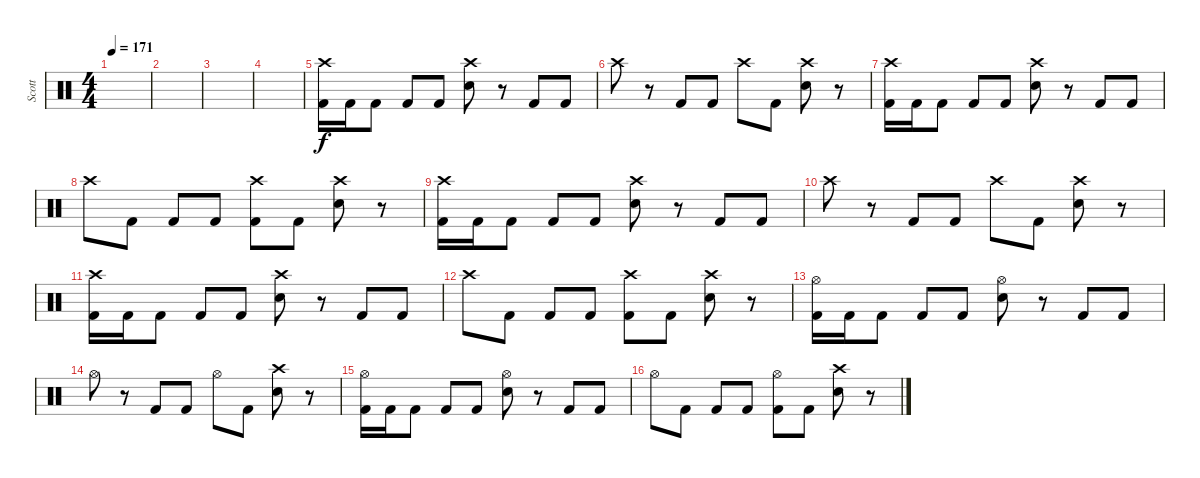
\track ("Scott" "Scott") {instrument percussion}
\staff {score}
\articulation defaults
\ts (4 4)
\tempo 171
\clef neutral
\ks c
|
|
|
|
("Crash high (hit)" "Kick (hit) 2").16 "Kick (hit) 2".16 "Kick (hit) 2".8 "Kick (hit) 2".8 "Kick (hit) 2".8 ("Crash high (hit)" "Electric Snare (hit)").8 r.8 "Kick (hit) 2".8 "Kick (hit) 2".8 |
"Crash high (hit)".8 r.8 "Kick (hit) 2".8 "Kick (hit) 2".8 "Crash high (hit)".8 "Kick (hit) 2".8 ("Crash high (hit)" "Electric Snare (hit)").8 r.8 |
("Crash high (hit)" "Kick (hit) 2").16 "Kick (hit) 2".16 "Kick (hit) 2".8 "Kick (hit) 2".8 "Kick (hit) 2".8 ("Crash high (hit)" "Electric Snare (hit)").8 r.8 "Kick (hit) 2".8 "Kick (hit) 2".8 |
"Crash high (hit)".8 "Kick (hit) 2".8 "Kick (hit) 2".8 "Kick (hit) 2".8 ("Crash high (hit)" "Kick (hit) 2").8 "Kick (hit) 2".8 ("Crash high (hit)" "Electric Snare (hit)").8 r.8 |
("Crash high (hit)" "Kick (hit) 2").16 "Kick (hit) 2".16 "Kick (hit) 2".8 "Kick (hit) 2".8 "Kick (hit) 2".8 ("Crash high (hit)" "Electric Snare (hit)").8 r.8 "Kick (hit) 2".8 "Kick (hit) 2".8 |
"Crash high (hit)".8 r.8 "Kick (hit) 2".8 "Kick (hit) 2".8 "Crash high (hit)".8 "Kick (hit) 2".8 ("Crash high (hit)" "Electric Snare (hit)").8 r.8 |
("Crash high (hit)" "Kick (hit) 2").16 "Kick (hit) 2".16 "Kick (hit) 2".8 "Kick (hit) 2".8 "Kick (hit) 2".8 ("Crash high (hit)" "Electric Snare (hit)").8 r.8 "Kick (hit) 2".8 "Kick (hit) 2".8 |
"Crash high (hit)".8 "Kick (hit) 2".8 "Kick (hit) 2".8 "Kick (hit) 2".8 ("Crash high (hit)" "Kick (hit) 2").8 "Kick (hit) 2".8 ("Crash high (hit)" "Electric Snare (hit)").8 r.8 |
("Hi-Hat (open)" "Kick (hit) 2").16 "Kick (hit) 2".16 "Kick (hit) 2".8 "Kick (hit) 2".8 "Kick (hit) 2".8 ("Hi-Hat (open)" "Electric Snare (hit)").8 r.8 "Kick (hit) 2".8 "Kick (hit) 2".8 |
"Hi-Hat (open)".8 r.8 "Kick (hit) 2".8 "Kick (hit) 2".8 "Hi-Hat (open)".8 "Kick (hit) 2".8 ("Crash high (hit)" "Electric Snare (hit)").8 r.8 |
("Hi-Hat (open)" "Kick (hit) 2").16 "Kick (hit) 2".16 "Kick (hit) 2".8 "Kick (hit) 2".8 "Kick (hit) 2".8 ("Hi-Hat (open)" "Electric Snare (hit)").8 r.8 "Kick (hit) 2".8 "Kick (hit) 2".8 |
"Hi-Hat (open)".8 "Kick (hit) 2".8 "Kick (hit) 2".8 "Kick (hit) 2".8 ("Hi-Hat (open)" "Kick (hit) 2").8 "Kick (hit) 2".8 ("Crash high (hit)" "Electric Snare (hit)").8 r.8
